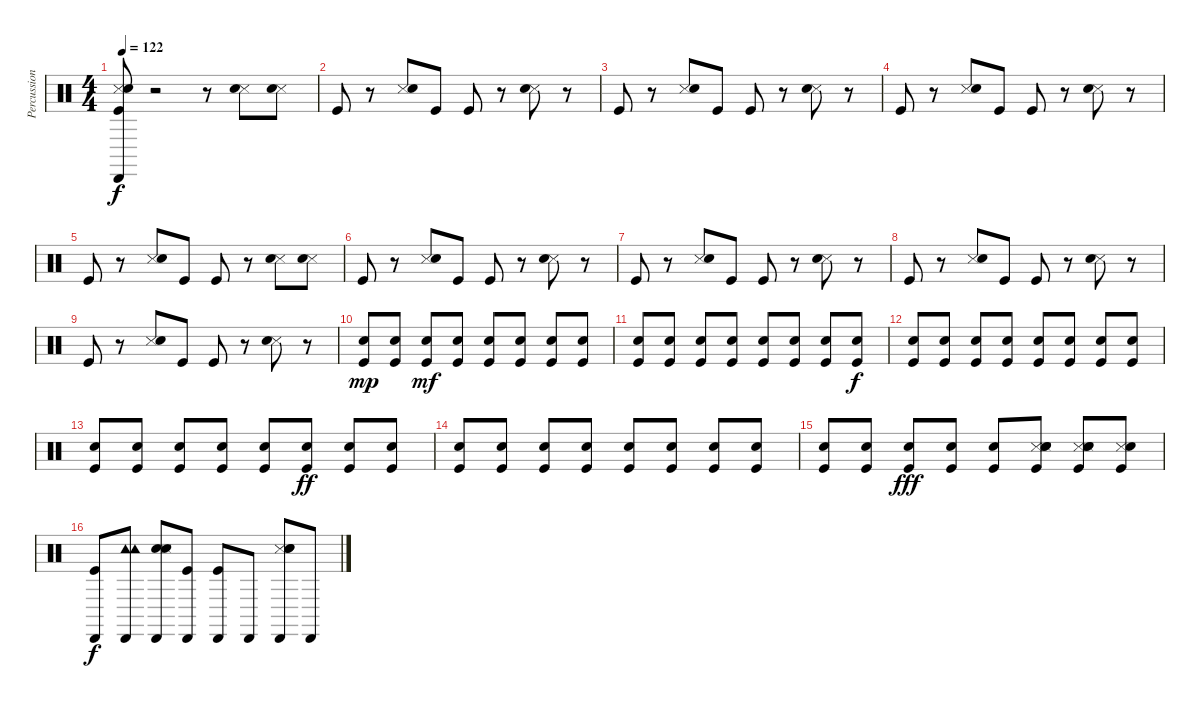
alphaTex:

\track ("Percussion" "Percussion") {instrument percussion}
\staff {score}
\articulation defaults
\ts (4 4)
\tempo 122
\clef neutral
\ks c
("Cabasa (hit)" "Kick (hit)" "Snare (side stick) 3" "Snare (hit) 2").8{dy f} r.2 r.8 ("Snare (side stick) 3" "Snare (hit) 2").8 ("Snare (side stick) 3" "Snare (hit) 2").8 |
"Kick (hit)".8 r.8 ("Snare (side stick) 3" "Snare (hit) 2").8 "Kick (hit)".8 "Kick (hit)".8 r.8 ("Snare (side stick) 3" "Snare (hit) 2").8 r.8 |
"Kick (hit)".8 r.8 ("Snare (side stick) 3" "Snare (hit) 2").8 "Kick (hit)".8 "Kick (hit)".8 r.8 ("Snare (side stick) 3" "Snare (hit) 2").8 r.8 |
"Kick (hit)".8 r.8 ("Snare (side stick) 3" "Snare (hit) 2").8 "Kick (hit)".8 "Kick (hit)".8 r.8 ("Snare (side stick) 3" "Snare (hit) 2").8 r.8 |
"Kick (hit)".8 r.8 ("Snare (side stick) 3" "Snare (hit) 2").8 "Kick (hit)".8 "Kick (hit)".8 r.8 ("Snare (side stick) 3" "Snare (hit) 2").8 ("Snare (side stick) 3" "Snare (hit) 2").8 |
"Kick (hit)".8 r.8 ("Snare (side stick) 3" "Snare (hit) 2").8 "Kick (hit)".8 "Kick (hit)".8 r.8 ("Snare (side stick) 3" "Snare (hit) 2").8 r.8 |
"Kick (hit)".8 r.8 ("Snare (side stick) 3" "Snare (hit) 2").8 "Kick (hit)".8 "Kick (hit)".8 r.8 ("Snare (side stick) 3" "Snare (hit) 2").8 r.8 |
"Kick (hit)".8 r.8 ("Snare (side stick) 3" "Snare (hit) 2").8 "Kick (hit)".8 "Kick (hit)".8 r.8 ("Snare (side stick) 3" "Snare (hit) 2").8 r.8 |
"Kick (hit)".8 r.8 ("Snare (side stick) 3" "Snare (hit) 2").8 "Kick (hit)".8 "Kick (hit)".8 r.8 ("Snare (side stick) 3" "Snare (hit) 2").8 r.8 |
("Kick (hit)" "Snare (hit) 2").8{dy mp} ("Kick (hit)" "Snare (hit) 2").8 ("Kick (hit)" "Snare (hit) 2").8{dy mf} ("Kick (hit)" "Snare (hit) 2").8 ("Kick (hit)" "Snare (hit) 2").8 ("Kick (hit)" "Snare (hit) 2").8 ("Kick (hit)" "Snare (hit) 2").8 ("Kick (hit)" "Snare (hit) 2").8 |
("Kick (hit)" "Snare (hit) 2").8 ("Kick (hit)" "Snare (hit) 2").8 ("Kick (hit)" "Snare (hit) 2").8 ("Kick (hit)" "Snare (hit) 2").8 ("Kick (hit)" "Snare (hit) 2").8 ("Kick (hit)" "Snare (hit) 2").8 ("Kick (hit)" "Snare (hit) 2").8 ("Kick (hit)" "Snare (hit) 2").8{dy f} |
("Kick (hit)" "Snare (hit) 2").8 ("Kick (hit)" "Snare (hit) 2").8 ("Kick (hit)" "Snare (hit) 2").8 ("Kick (hit)" "Snare (hit) 2").8 ("Kick (hit)" "Snare (hit) 2").8 ("Kick (hit)" "Snare (hit) 2").8 ("Kick (hit)" "Snare (hit) 2").8 ("Kick (hit)" "Snare (hit) 2").8 |
("Kick (hit)" "Snare (hit) 2").8 ("Kick (hit)" "Snare (hit) 2").8 ("Kick (hit)" "Snare (hit) 2").8 ("Kick (hit)" "Snare (hit) 2").8 ("Kick (hit)" "Snare (hit) 2").8 ("Kick (hit)" "Snare (hit) 2").8{dy ff} ("Kick (hit)" "Snare (hit) 2").8 ("Kick (hit)" "Snare (hit) 2").8 |
("Kick (hit)" "Snare (hit) 2").8 ("Kick (hit)" "Snare (hit) 2").8 ("Kick (hit)" "Snare (hit) 2").8 ("Kick (hit)" "Snare (hit) 2").8 ("Kick (hit)" "Snare (hit) 2").8 ("Kick (hit)" "Snare (hit) 2").8 ("Kick (hit)" "Snare (hit) 2").8 ("Kick (hit)" "Snare (hit) 2").8 |
("Kick (hit)" "Snare (hit) 2").8 ("Kick (hit)" "Snare (hit) 2").8 ("Kick (hit)" "Snare (hit) 2").8{dy fff} ("Kick (hit)" "Snare (hit) 2").8 ("Kick (hit)" "Snare (hit) 2").8 ("Snare (side stick) 3" "Kick (hit)" "Snare (hit) 2" "Snare (side stick) 3" "Snare (hit) 2").8 ("Snare (side stick) 3" "Kick (hit)" "Snare (hit) 2" "Snare (side stick) 3" "Snare (hit) 2").8 ("Snare (side stick) 3" "Kick (hit)" "Snare (hit) 2").8 |
("Kick (hit)" "Cabasa (hit)").8{dy f} ("Tambourine (hit)" "Cabasa (hit)" "Tambourine (hit)").8 ("Snare (hit) 2" "Snare (side stick) 3" "Cabasa (hit)" "Hand Clap (hit)").8 ("Kick (hit)" "Cabasa (hit)").8 ("Kick (hit)" "Cabasa (hit)").8 "Cabasa (hit)".8 ("Snare (side stick) 3" "Cabasa (hit)" "Hand Clap (hit)" "Snare (hit) 2").8 "Cabasa (hit)".8
